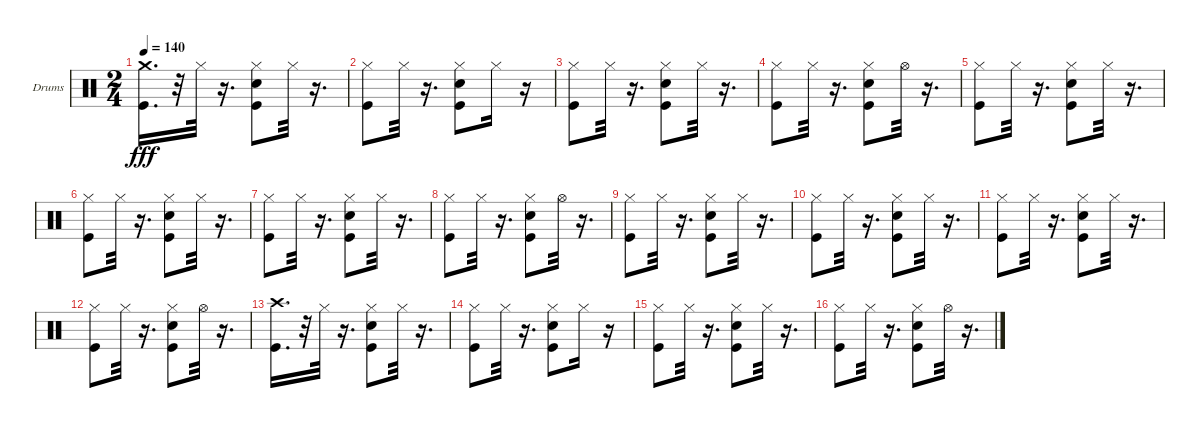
\bracketExtendMode groupsimilarinstruments
\firstSystemTrackNameOrientation horizontal
\otherSystemsTrackNameOrientation horizontal
\track ("Ударные" "Drums") {instrument percussion}
\staff {score}
\articulation defaults
\ts (2 4)
\tempo 140
\clef neutral
\ks c
("Kick (hit)" "Crash medium (hit)").16{d dy fff} r.32 "Hi-Hat (closed)".32 r.16{d} ("Kick (hit)" "Snare (hit) 2" "Hi-Hat (closed)").8 "Hi-Hat (closed)".32 r.16{d} |
("Kick (hit)" "Hi-Hat (closed)").8 "Hi-Hat (closed)".32 r.16{d} ("Snare (hit) 2" "Kick (hit)" "Hi-Hat (closed)").8 "Hi-Hat (closed)".16 r.16 |
("Kick (hit)" "Hi-Hat (closed)").8 "Hi-Hat (closed)".32 r.16{d} ("Snare (hit) 2" "Kick (hit)" "Hi-Hat (closed)").8 "Hi-Hat (closed)".32 r.16{d} |
("Kick (hit)" "Hi-Hat (closed)").8 "Hi-Hat (closed)".32 r.16{d} ("Kick (hit)" "Snare (hit) 2" "Hi-Hat (closed)").8 "Hi-Hat (open)".32 r.16{d} |
("Kick (hit)" "Hi-Hat (closed)").8 "Hi-Hat (closed)".32 r.16{d} ("Snare (hit) 2" "Kick (hit)" "Hi-Hat (closed)").8 "Hi-Hat (closed)".32 r.16{d} |
("Kick (hit)" "Hi-Hat (closed)").8 "Hi-Hat (closed)".32 r.16{d} ("Snare (hit) 2" "Kick (hit)" "Hi-Hat (closed)").8 "Hi-Hat (closed)".32 r.16{d} |
("Kick (hit)" "Hi-Hat (closed)").8 "Hi-Hat (closed)".32 r.16{d} ("Hi-Hat (closed)" "Snare (hit) 2" "Kick (hit)").8 "Hi-Hat (closed)".32 r.16{d} |
("Kick (hit)" "Hi-Hat (closed)").8 "Hi-Hat (closed)".32 r.16{d} ("Kick (hit)" "Hi-Hat (closed)" "Snare (hit) 2").8 "Hi-Hat (open)".32 r.16{d} |
("Kick (hit)" "Hi-Hat (closed)").8 "Hi-Hat (closed)".32 r.16{d} ("Kick (hit)" "Hi-Hat (closed)" "Snare (hit) 2").8 "Hi-Hat (closed)".32 r.16{d} |
("Kick (hit)" "Hi-Hat (closed)").8 "Hi-Hat (closed)".32 r.16{d} ("Snare (hit) 2" "Kick (hit)" "Hi-Hat (closed)").8 "Hi-Hat (closed)".32 r.16{d} |
("Kick (hit)" "Hi-Hat (closed)").8 "Hi-Hat (closed)".32 r.16{d} ("Kick (hit)" "Hi-Hat (closed)" "Snare (hit) 2").8 "Hi-Hat (closed)".32 r.16{d} |
("Kick (hit)" "Hi-Hat (closed)").8 "Hi-Hat (closed)".32 r.16{d} ("Kick (hit)" "Hi-Hat (closed)" "Snare (hit) 2").8 "Hi-Hat (open)".32 r.16{d} |
("Kick (hit)" "Crash high (hit)").16{d} r.32 "Hi-Hat (closed)".32 r.16{d} ("Kick (hit)" "Snare (hit) 2" "Hi-Hat (closed)").8 "Hi-Hat (closed)".32 r.16{d} |
("Kick (hit)" "Hi-Hat (closed)").8 "Hi-Hat (closed)".32 r.16{d} ("Hi-Hat (closed)" "Snare (hit) 2" "Kick (hit)").8 "Hi-Hat (closed)".16 r.16 |
("Kick (hit)" "Hi-Hat (closed)").8 "Hi-Hat (closed)".32 r.16{d} ("Snare (hit) 2" "Kick (hit)" "Hi-Hat (closed)").8 "Hi-Hat (closed)".32 r.16{d} |
("Kick (hit)" "Hi-Hat (closed)").8 "Hi-Hat (closed)".32 r.16{d} ("Kick (hit)" "Snare (hit) 2" "Hi-Hat (closed)").8 "Hi-Hat (open)".32 r.16{d}
